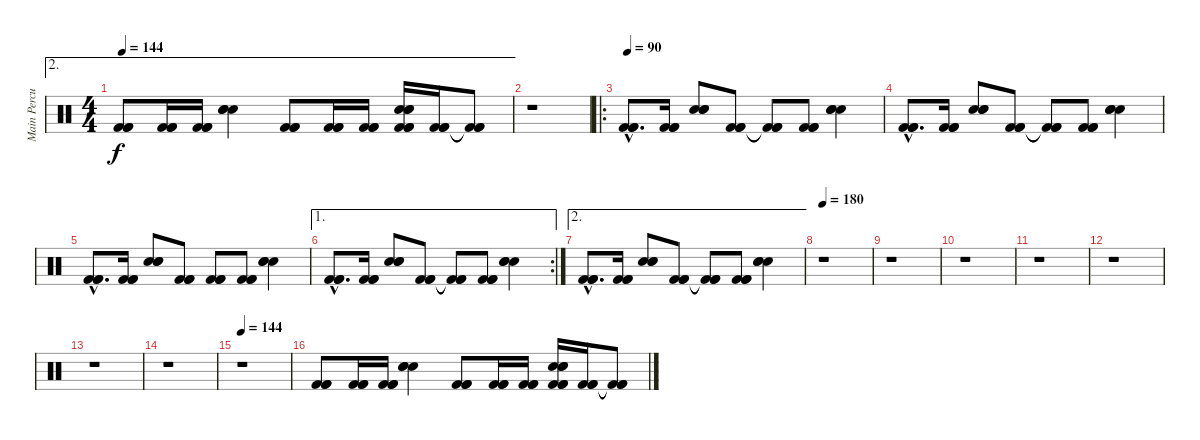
\track ("Main Percussion" "Main Percu") {instrument percussion}
\staff {score}
\articulation defaults
\ae 2
\ts (4 4)
\tempo 144
\clef neutral
\ks c
("Kick (hit) 2" "Kick (hit) 2" "Kick (hit) 2").8{dy f} ("Kick (hit) 2" "Kick (hit) 2" "Kick (hit) 2").16 ("Kick (hit) 2" "Kick (hit) 2" "Kick (hit) 2").16 ("Electric Snare (hit)" "Electric Snare (hit)" "Electric Snare (hit)").4 ("Kick (hit) 2" "Kick (hit) 2" "Kick (hit) 2").8 ("Kick (hit) 2" "Kick (hit) 2" "Kick (hit) 2").16 ("Kick (hit) 2" "Kick (hit) 2" "Kick (hit) 2").16 ("Snare (hit) 2" "Snare (hit) 2" "Snare (hit) 2" "Kick (hit) 2" "Kick (hit) 2" "Kick (hit) 2").16 ("Kick (hit) 2" "Kick (hit) 2" "Kick (hit) 2").16 ("Kick (hit) 2"{t} "Kick (hit) 2"{t} "Kick (hit) 2"{t}).8 |
r.1 |
\ro
\tempo 90
("Kick (hit) 2"{hac} "Kick (hit) 2"{hac} "Kick (hit) 2"{hac}).8{d} ("Kick (hit) 2" "Kick (hit) 2" "Kick (hit) 2").16 ("Electric Snare (hit)" "Electric Snare (hit)" "Electric Snare (hit)").8 ("Kick (hit) 2" "Kick (hit) 2" "Kick (hit) 2").8 ("Kick (hit) 2"{t} "Kick (hit) 2"{t} "Kick (hit) 2"{t}).8 ("Kick (hit) 2" "Kick (hit) 2" "Kick (hit) 2").8 ("Electric Snare (hit)" "Electric Snare (hit)" "Electric Snare (hit)").4 |
("Kick (hit) 2"{hac} "Kick (hit) 2"{hac} "Kick (hit) 2"{hac}).8{d} ("Kick (hit) 2" "Kick (hit) 2" "Kick (hit) 2").16 ("Electric Snare (hit)" "Electric Snare (hit)" "Electric Snare (hit)").8 ("Kick (hit) 2" "Kick (hit) 2" "Kick (hit) 2").8 ("Kick (hit) 2"{t} "Kick (hit) 2"{t} "Kick (hit) 2"{t}).8 ("Kick (hit) 2" "Kick (hit) 2" "Kick (hit) 2").8 ("Electric Snare (hit)" "Electric Snare (hit)" "Electric Snare (hit)").4 |
("Kick (hit) 2"{hac} "Kick (hit) 2"{hac} "Kick (hit) 2"{hac}).8{d} ("Kick (hit) 2" "Kick (hit) 2" "Kick (hit) 2").16 ("Electric Snare (hit)" "Electric Snare (hit)" "Electric Snare (hit)").8 ("Kick (hit) 2" "Kick (hit) 2" "Kick (hit) 2").8 ("Kick (hit) 2" "Kick (hit) 2" "Kick (hit) 2").8 ("Kick (hit) 2" "Kick (hit) 2" "Kick (hit) 2").8 ("Electric Snare (hit)" "Electric Snare (hit)" "Electric Snare (hit)").4 |
\ae 1
\rc 2
("Kick (hit) 2"{hac} "Kick (hit) 2"{hac} "Kick (hit) 2"{hac}).8{d} ("Kick (hit) 2" "Kick (hit) 2" "Kick (hit) 2").16 ("Electric Snare (hit)" "Electric Snare (hit)" "Electric Snare (hit)").8 ("Kick (hit) 2" "Kick (hit) 2" "Kick (hit) 2").8 ("Kick (hit) 2"{t} "Kick (hit) 2"{t} "Kick (hit) 2"{t}).8 ("Kick (hit) 2" "Kick (hit) 2" "Kick (hit) 2").8 ("Electric Snare (hit)" "Electric Snare (hit)" "Electric Snare (hit)").4 |
\ae 2
("Kick (hit) 2"{hac} "Kick (hit) 2"{hac} "Kick (hit) 2"{hac}).8{d} ("Kick (hit) 2" "Kick (hit) 2" "Kick (hit) 2").16 ("Electric Snare (hit)" "Electric Snare (hit)" "Electric Snare (hit)").8 ("Kick (hit) 2" "Kick (hit) 2" "Kick (hit) 2").8 ("Kick (hit) 2"{t} "Kick (hit) 2"{t} "Kick (hit) 2"{t}).8 ("Kick (hit) 2" "Kick (hit) 2" "Kick (hit) 2").8 ("Electric Snare (hit)" "Electric Snare (hit)" "Electric Snare (hit)").4 |
\tempo 180
r.1 |
r.1 |
r.1 |
r.1 |
r.1 |
r.1 |
r.1 |
\tempo 144
r.1 |
("Kick (hit) 2" "Kick (hit) 2" "Kick (hit) 2").8 ("Kick (hit) 2" "Kick (hit) 2" "Kick (hit) 2").16 ("Kick (hit) 2" "Kick (hit) 2" "Kick (hit) 2").16 ("Electric Snare (hit)" "Electric Snare (hit)" "Electric Snare (hit)").4 ("Kick (hit) 2" "Kick (hit) 2" "Kick (hit) 2").8 ("Kick (hit) 2" "Kick (hit) 2" "Kick (hit) 2").16 ("Kick (hit) 2" "Kick (hit) 2" "Kick (hit) 2").16 ("Snare (hit) 2" "Snare (hit) 2" "Snare (hit) 2" "Kick (hit) 2" "Kick (hit) 2" "Kick (hit) 2").16 ("Kick (hit) 2" "Kick (hit) 2" "Kick (hit) 2").16 ("Kick (hit) 2"{t} "Kick (hit) 2"{t} "Kick (hit) 2"{t}).8
